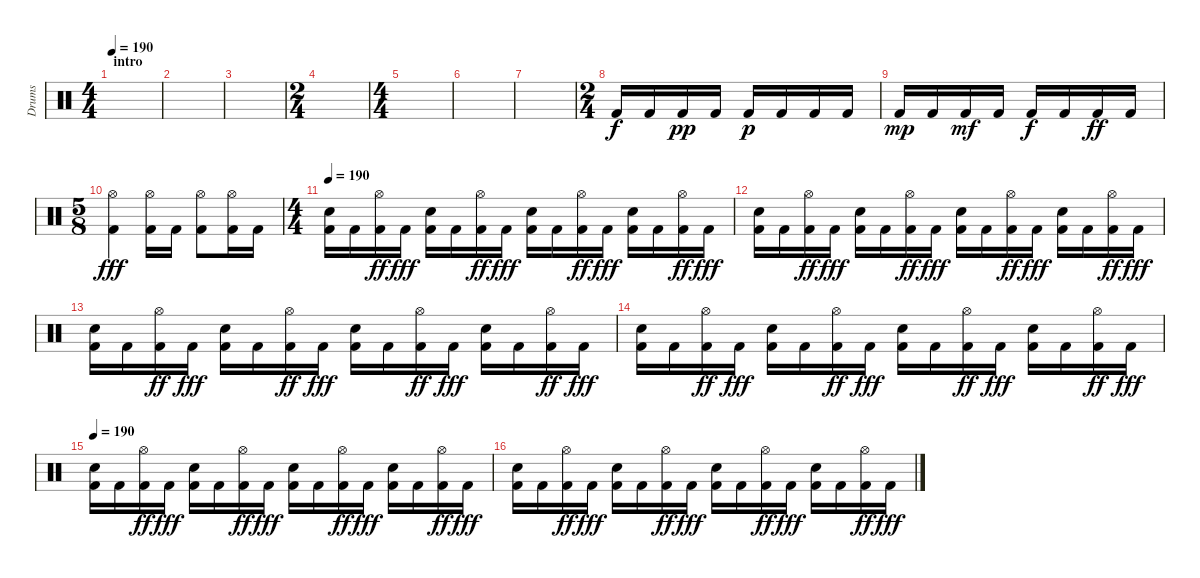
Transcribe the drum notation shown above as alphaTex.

\track ("Drums" "Drums") {instrument percussion}
\staff {score}
\articulation defaults
\ts (4 4)
\section ("" "intro")
\tempo 190
\tempo 145
\tempo 190
\clef neutral
\ks c
|
|
|
\ts (2 4)
|
\ts (4 4)
|
|
|
\ts (2 4)
"Kick (hit) 2".16 "Kick (hit) 2".16 "Kick (hit) 2".16{dy pp} "Kick (hit) 2".16 "Kick (hit) 2".16{dy p} "Kick (hit) 2".16 "Kick (hit) 2".16 "Kick (hit) 2".16 |
"Kick (hit) 2".16{dy mp} "Kick (hit) 2".16 "Kick (hit) 2".16{dy mf} "Kick (hit) 2".16 "Kick (hit) 2".16{dy f} "Kick (hit) 2".16 "Kick (hit) 2".16{dy ff} "Kick (hit) 2".16 |
\ts (5 8)
("Hi-Hat (open)" "Kick (hit) 2").4{dy fff} ("Kick (hit) 2" "Hi-Hat (open)").16 "Kick (hit) 2".16 ("Kick (hit) 2" "Hi-Hat (open)").8 ("Kick (hit) 2" "Hi-Hat (open)").16 "Kick (hit) 2".16 |
\ts (4 4)
\tempo 190
("Kick (hit) 2" "Electric Snare (hit)").16 "Kick (hit) 2".16 ("Kick (hit) 2" "Hi-Hat (open)").16{dy ff} "Kick (hit) 2".16{dy fff} ("Kick (hit) 2" "Electric Snare (hit)").16 "Kick (hit) 2".16 ("Kick (hit) 2" "Hi-Hat (open)").16{dy ff} "Kick (hit) 2".16{dy fff} ("Kick (hit) 2" "Electric Snare (hit)").16 "Kick (hit) 2".16 ("Kick (hit) 2" "Hi-Hat (open)").16{dy ff} "Kick (hit) 2".16{dy fff} ("Kick (hit) 2" "Electric Snare (hit)").16 "Kick (hit) 2".16 ("Kick (hit) 2" "Hi-Hat (open)").16{dy ff} "Kick (hit) 2".16{dy fff} |
("Kick (hit) 2" "Electric Snare (hit)").16 "Kick (hit) 2".16 ("Kick (hit) 2" "Hi-Hat (open)").16{dy ff} "Kick (hit) 2".16{dy fff} ("Kick (hit) 2" "Electric Snare (hit)").16 "Kick (hit) 2".16 ("Kick (hit) 2" "Hi-Hat (open)").16{dy ff} "Kick (hit) 2".16{dy fff} ("Kick (hit) 2" "Electric Snare (hit)").16 "Kick (hit) 2".16 ("Kick (hit) 2" "Hi-Hat (open)").16{dy ff} "Kick (hit) 2".16{dy fff} ("Kick (hit) 2" "Electric Snare (hit)").16 "Kick (hit) 2".16 ("Kick (hit) 2" "Hi-Hat (open)").16{dy ff} "Kick (hit) 2".16{dy fff} |
("Kick (hit) 2" "Electric Snare (hit)").16 "Kick (hit) 2".16 ("Kick (hit) 2" "Hi-Hat (open)").16{dy ff} "Kick (hit) 2".16{dy fff} ("Kick (hit) 2" "Electric Snare (hit)").16 "Kick (hit) 2".16 ("Kick (hit) 2" "Hi-Hat (open)").16{dy ff} "Kick (hit) 2".16{dy fff} ("Kick (hit) 2" "Electric Snare (hit)").16 "Kick (hit) 2".16 ("Kick (hit) 2" "Hi-Hat (open)").16{dy ff} "Kick (hit) 2".16{dy fff} ("Kick (hit) 2" "Electric Snare (hit)").16 "Kick (hit) 2".16 ("Kick (hit) 2" "Hi-Hat (open)").16{dy ff} "Kick (hit) 2".16{dy fff} |
("Kick (hit) 2" "Electric Snare (hit)").16 "Kick (hit) 2".16 ("Kick (hit) 2" "Hi-Hat (open)").16{dy ff} "Kick (hit) 2".16{dy fff} ("Kick (hit) 2" "Electric Snare (hit)").16 "Kick (hit) 2".16 ("Kick (hit) 2" "Hi-Hat (open)").16{dy ff} "Kick (hit) 2".16{dy fff} ("Kick (hit) 2" "Electric Snare (hit)").16 "Kick (hit) 2".16 ("Kick (hit) 2" "Hi-Hat (open)").16{dy ff} "Kick (hit) 2".16{dy fff} ("Kick (hit) 2" "Electric Snare (hit)").16 "Kick (hit) 2".16 ("Kick (hit) 2" "Hi-Hat (open)").16{dy ff} "Kick (hit) 2".16{dy fff} |
\tempo 190
("Kick (hit) 2" "Electric Snare (hit)").16 "Kick (hit) 2".16 ("Kick (hit) 2" "Hi-Hat (open)").16{dy ff} "Kick (hit) 2".16{dy fff} ("Kick (hit) 2" "Electric Snare (hit)").16 "Kick (hit) 2".16 ("Kick (hit) 2" "Hi-Hat (open)").16{dy ff} "Kick (hit) 2".16{dy fff} ("Kick (hit) 2" "Electric Snare (hit)").16 "Kick (hit) 2".16 ("Kick (hit) 2" "Hi-Hat (open)").16{dy ff} "Kick (hit) 2".16{dy fff} ("Kick (hit) 2" "Electric Snare (hit)").16 "Kick (hit) 2".16 ("Kick (hit) 2" "Hi-Hat (open)").16{dy ff} "Kick (hit) 2".16{dy fff} |
("Kick (hit) 2" "Electric Snare (hit)").16 "Kick (hit) 2".16 ("Kick (hit) 2" "Hi-Hat (open)").16{dy ff} "Kick (hit) 2".16{dy fff} ("Kick (hit) 2" "Electric Snare (hit)").16 "Kick (hit) 2".16 ("Kick (hit) 2" "Hi-Hat (open)").16{dy ff} "Kick (hit) 2".16{dy fff} ("Kick (hit) 2" "Electric Snare (hit)").16 "Kick (hit) 2".16 ("Kick (hit) 2" "Hi-Hat (open)").16{dy ff} "Kick (hit) 2".16{dy fff} ("Kick (hit) 2" "Electric Snare (hit)").16 "Kick (hit) 2".16 ("Kick (hit) 2" "Hi-Hat (open)").16{dy ff} "Kick (hit) 2".16{dy fff}
